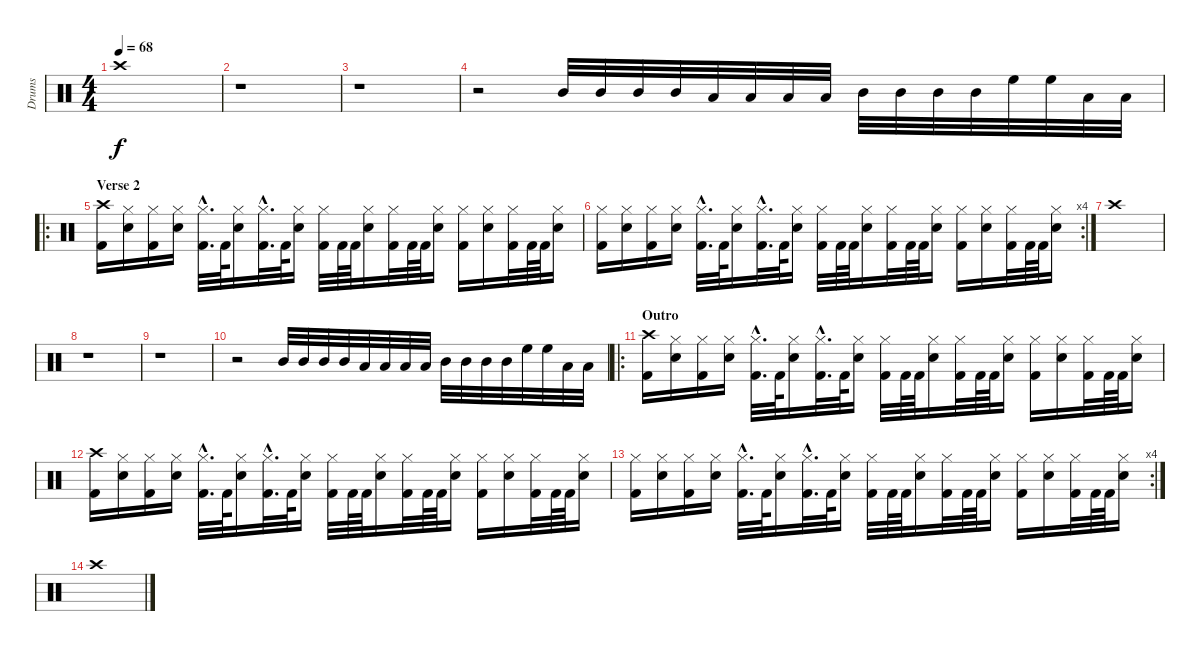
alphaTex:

\track ("Drums" "Drums") {instrument percussion}
\staff {score}
\articulation defaults
\ts (4 4)
\tempo 68
\clef neutral
\ks c "Crash high (hit)".1{dy f}
|
r.1 |
r.1 |
r.2 "Mid Tom (hit)".32 "Mid Tom (hit)".32 "Mid Tom (hit)".32 "Mid Tom (hit)".32 "Low Tom (hit)".32 "Low Tom (hit)".32 "Low Tom (hit)".32 "Low Tom (hit)".32 "Mid Tom (hit)".32 "Mid Tom (hit)".32 "Mid Tom (hit)".32 "Mid Tom (hit)".32 "High Floor Tom (hit)".32 "High Floor Tom (hit)".32 "Low Tom (hit)".32 "Low Tom (hit)".32 |
\ro
\section ("" "Verse 2")
("Crash high (hit)" "Kick (hit) 2").16 ("Hi-Hat (closed)" "Electric Snare (hit)").16 ("Hi-Hat (closed)" "Kick (hit) 2").16 ("Hi-Hat (closed)" "Electric Snare (hit)").16 ("Hi-Hat (closed)"{hac} "Kick (hit) 2"{hac}).32{d} "Kick (hit) 2".64 ("Hi-Hat (closed)" "Electric Snare (hit)").16 ("Hi-Hat (closed)"{hac} "Kick (hit) 2"{hac}).32{d} "Kick (hit) 2".64 ("Hi-Hat (closed)" "Electric Snare (hit)").16 ("Hi-Hat (closed)" "Kick (hit) 2").32 "Kick (hit) 2".64 "Kick (hit) 2".64 ("Hi-Hat (closed)" "Electric Snare (hit)").16 ("Hi-Hat (closed)" "Kick (hit) 2").32 "Kick (hit) 2".64 "Kick (hit) 2".64 ("Hi-Hat (closed)" "Electric Snare (hit)").16 ("Hi-Hat (closed)" "Kick (hit) 2").16 ("Hi-Hat (closed)" "Electric Snare (hit)").16 ("Hi-Hat (closed)" "Kick (hit) 2").32 "Kick (hit) 2".64 "Kick (hit) 2".64 ("Hi-Hat (closed)" "Electric Snare (hit)").16 |
\rc 4
("Hi-Hat (closed)" "Kick (hit) 2").16 ("Hi-Hat (closed)" "Electric Snare (hit)").16 ("Hi-Hat (closed)" "Kick (hit) 2").16 ("Hi-Hat (closed)" "Electric Snare (hit)").16 ("Hi-Hat (closed)"{hac} "Kick (hit) 2"{hac}).32{d} "Kick (hit) 2".64 ("Hi-Hat (closed)" "Electric Snare (hit)").16 ("Hi-Hat (closed)"{hac} "Kick (hit) 2"{hac}).32{d} "Kick (hit) 2".64 ("Hi-Hat (closed)" "Electric Snare (hit)").16 ("Hi-Hat (closed)" "Kick (hit) 2").32 "Kick (hit) 2".64 "Kick (hit) 2".64 ("Hi-Hat (closed)" "Electric Snare (hit)").16 ("Hi-Hat (closed)" "Kick (hit) 2").32 "Kick (hit) 2".64 "Kick (hit) 2".64 ("Hi-Hat (closed)" "Electric Snare (hit)").16 ("Hi-Hat (closed)" "Kick (hit) 2").16 ("Hi-Hat (closed)" "Electric Snare (hit)").16 ("Hi-Hat (closed)" "Kick (hit) 2").32 "Kick (hit) 2".64 "Kick (hit) 2".64 ("Hi-Hat (closed)" "Electric Snare (hit)").16 |
"Crash high (hit)".1 |
r.1 |
r.1 |
r.2 "Mid Tom (hit)".32 "Mid Tom (hit)".32 "Mid Tom (hit)".32 "Mid Tom (hit)".32 "Low Tom (hit)".32 "Low Tom (hit)".32 "Low Tom (hit)".32 "Low Tom (hit)".32 "Mid Tom (hit)".32 "Mid Tom (hit)".32 "Mid Tom (hit)".32 "Mid Tom (hit)".32 "High Floor Tom (hit)".32 "High Floor Tom (hit)".32 "Low Tom (hit)".32 "Low Tom (hit)".32 |
\ro
\section ("" "Outro")
("Crash high (hit)" "Kick (hit) 2").16 ("Hi-Hat (closed)" "Electric Snare (hit)").16 ("Hi-Hat (closed)" "Kick (hit) 2").16 ("Hi-Hat (closed)" "Electric Snare (hit)").16 ("Hi-Hat (closed)"{hac} "Kick (hit) 2"{hac}).32{d} "Kick (hit) 2".64 ("Hi-Hat (closed)" "Electric Snare (hit)").16 ("Hi-Hat (closed)"{hac} "Kick (hit) 2"{hac}).32{d} "Kick (hit) 2".64 ("Hi-Hat (closed)" "Electric Snare (hit)").16 ("Hi-Hat (closed)" "Kick (hit) 2").32 "Kick (hit) 2".64 "Kick (hit) 2".64 ("Hi-Hat (closed)" "Electric Snare (hit)").16 ("Hi-Hat (closed)" "Kick (hit) 2").32 "Kick (hit) 2".64 "Kick (hit) 2".64 ("Hi-Hat (closed)" "Electric Snare (hit)").16 ("Hi-Hat (closed)" "Kick (hit) 2").16 ("Hi-Hat (closed)" "Electric Snare (hit)").16 ("Hi-Hat (closed)" "Kick (hit) 2").32 "Kick (hit) 2".64 "Kick (hit) 2".64 ("Hi-Hat (closed)" "Electric Snare (hit)").16 |
("Crash high (hit)" "Kick (hit) 2").16 ("Hi-Hat (closed)" "Electric Snare (hit)").16 ("Hi-Hat (closed)" "Kick (hit) 2").16 ("Hi-Hat (closed)" "Electric Snare (hit)").16 ("Hi-Hat (closed)"{hac} "Kick (hit) 2"{hac}).32{d} "Kick (hit) 2".64 ("Hi-Hat (closed)" "Electric Snare (hit)").16 ("Hi-Hat (closed)"{hac} "Kick (hit) 2"{hac}).32{d} "Kick (hit) 2".64 ("Hi-Hat (closed)" "Electric Snare (hit)").16 ("Hi-Hat (closed)" "Kick (hit) 2").32 "Kick (hit) 2".64 "Kick (hit) 2".64 ("Hi-Hat (closed)" "Electric Snare (hit)").16 ("Hi-Hat (closed)" "Kick (hit) 2").32 "Kick (hit) 2".64 "Kick (hit) 2".64 ("Hi-Hat (closed)" "Electric Snare (hit)").16 ("Hi-Hat (closed)" "Kick (hit) 2").16 ("Hi-Hat (closed)" "Electric Snare (hit)").16 ("Hi-Hat (closed)" "Kick (hit) 2").32 "Kick (hit) 2".64 "Kick (hit) 2".64 ("Hi-Hat (closed)" "Electric Snare (hit)").16 |
\rc 4
("Hi-Hat (closed)" "Kick (hit) 2").16 ("Hi-Hat (closed)" "Electric Snare (hit)").16 ("Hi-Hat (closed)" "Kick (hit) 2").16 ("Hi-Hat (closed)" "Electric Snare (hit)").16 ("Hi-Hat (closed)"{hac} "Kick (hit) 2"{hac}).32{d} "Kick (hit) 2".64 ("Hi-Hat (closed)" "Electric Snare (hit)").16 ("Hi-Hat (closed)"{hac} "Kick (hit) 2"{hac}).32{d} "Kick (hit) 2".64 ("Hi-Hat (closed)" "Electric Snare (hit)").16 ("Hi-Hat (closed)" "Kick (hit) 2").32 "Kick (hit) 2".64 "Kick (hit) 2".64 ("Hi-Hat (closed)" "Electric Snare (hit)").16 ("Hi-Hat (closed)" "Kick (hit) 2").32 "Kick (hit) 2".64 "Kick (hit) 2".64 ("Hi-Hat (closed)" "Electric Snare (hit)").16 ("Hi-Hat (closed)" "Kick (hit) 2").16 ("Hi-Hat (closed)" "Electric Snare (hit)").16 ("Hi-Hat (closed)" "Kick (hit) 2").32 "Kick (hit) 2".64 "Kick (hit) 2".64 ("Hi-Hat (closed)" "Electric Snare (hit)").16 |
"Crash high (hit)".1
